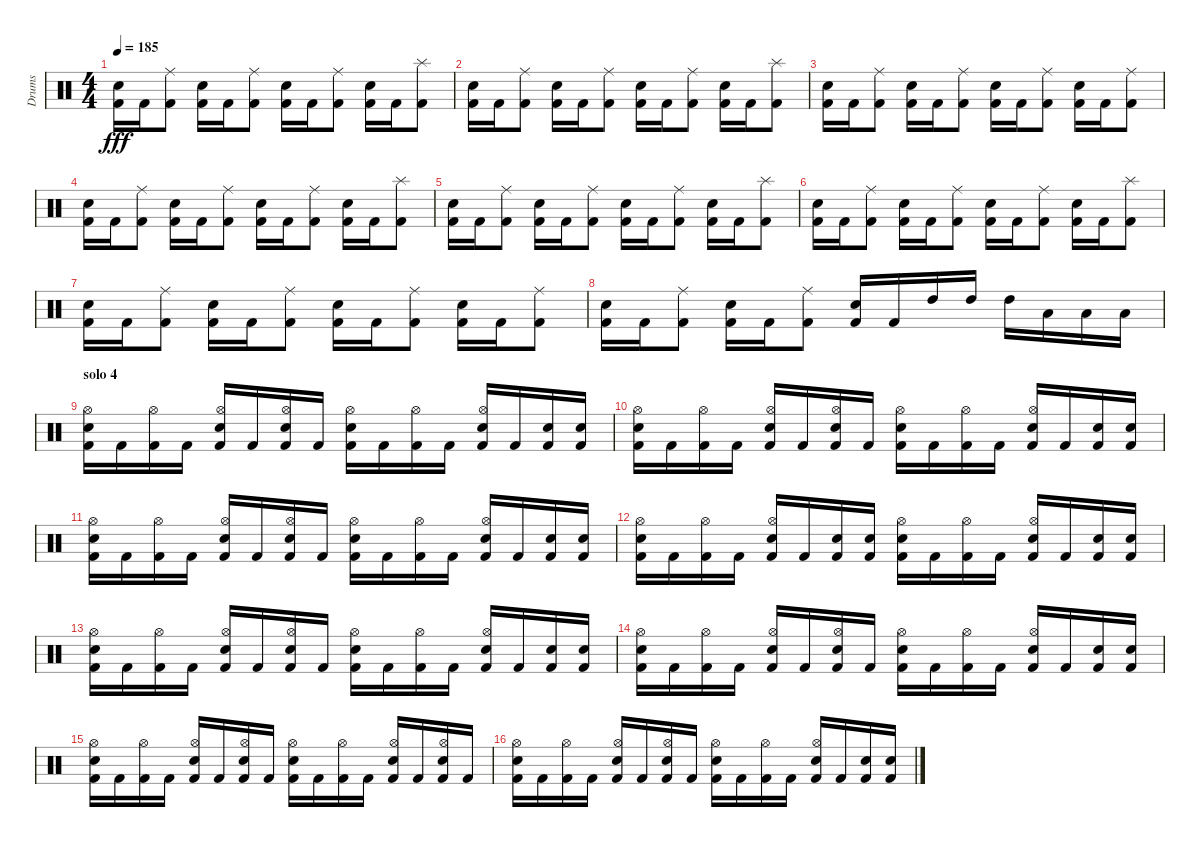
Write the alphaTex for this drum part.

\track ("Drums" "Drums") {instrument percussion}
\staff {score}
\articulation defaults
\ts (4 4)
\tempo 185
\clef neutral
\ks c
("Snare (hit) 2" "Kick (hit) 2").16{dy fff} "Kick (hit) 2".16 ("Ride (middle)" "Kick (hit) 2").8 ("Snare (hit) 2" "Kick (hit) 2").16 "Kick (hit) 2".16 ("Ride (middle)" "Kick (hit) 2").8 ("Snare (hit) 2" "Kick (hit) 2").16 "Kick (hit) 2".16 ("Ride (middle)" "Kick (hit) 2").8 ("Snare (hit) 2" "Kick (hit) 2").16 "Kick (hit) 2".16 ("Splash (hit)" "Kick (hit) 2").8 |
("Snare (hit) 2" "Kick (hit) 2").16 "Kick (hit) 2".16 ("Ride (middle)" "Kick (hit) 2").8 ("Snare (hit) 2" "Kick (hit) 2").16 "Kick (hit) 2".16 ("Ride (middle)" "Kick (hit) 2").8 ("Snare (hit) 2" "Kick (hit) 2").16 "Kick (hit) 2".16 ("Ride (middle)" "Kick (hit) 2").8 ("Snare (hit) 2" "Kick (hit) 2").16 "Kick (hit) 2".16 ("Splash (hit)" "Kick (hit) 2").8 |
("Snare (hit) 2" "Kick (hit) 2").16 "Kick (hit) 2".16 ("Ride (middle)" "Kick (hit) 2").8 ("Snare (hit) 2" "Kick (hit) 2").16 "Kick (hit) 2".16 ("Ride (middle)" "Kick (hit) 2").8 ("Snare (hit) 2" "Kick (hit) 2").16 "Kick (hit) 2".16 ("Ride (middle)" "Kick (hit) 2").8 ("Snare (hit) 2" "Kick (hit) 2").16 "Kick (hit) 2".16 ("Ride (middle)" "Kick (hit) 2").8 |
("Snare (hit) 2" "Kick (hit) 2").16 "Kick (hit) 2".16 ("Ride (middle)" "Kick (hit) 2").8 ("Snare (hit) 2" "Kick (hit) 2").16 "Kick (hit) 2".16 ("Ride (middle)" "Kick (hit) 2").8 ("Snare (hit) 2" "Kick (hit) 2").16 "Kick (hit) 2".16 ("Ride (middle)" "Kick (hit) 2").8 ("Snare (hit) 2" "Kick (hit) 2").16 "Kick (hit) 2".16 ("Splash (hit)" "Kick (hit) 2").8 |
("Snare (hit) 2" "Kick (hit) 2").16 "Kick (hit) 2".16 ("Ride (middle)" "Kick (hit) 2").8 ("Snare (hit) 2" "Kick (hit) 2").16 "Kick (hit) 2".16 ("Ride (middle)" "Kick (hit) 2").8 ("Snare (hit) 2" "Kick (hit) 2").16 "Kick (hit) 2".16 ("Ride (middle)" "Kick (hit) 2").8 ("Snare (hit) 2" "Kick (hit) 2").16 "Kick (hit) 2".16 ("Splash (hit)" "Kick (hit) 2").8 |
("Snare (hit) 2" "Kick (hit) 2").16 "Kick (hit) 2".16 ("Ride (middle)" "Kick (hit) 2").8 ("Snare (hit) 2" "Kick (hit) 2").16 "Kick (hit) 2".16 ("Ride (middle)" "Kick (hit) 2").8 ("Snare (hit) 2" "Kick (hit) 2").16 "Kick (hit) 2".16 ("Ride (middle)" "Kick (hit) 2").8 ("Snare (hit) 2" "Kick (hit) 2").16 "Kick (hit) 2".16 ("Splash (hit)" "Kick (hit) 2").8 |
("Snare (hit) 2" "Kick (hit) 2").16 "Kick (hit) 2".16 ("Ride (middle)" "Kick (hit) 2").8 ("Snare (hit) 2" "Kick (hit) 2").16 "Kick (hit) 2".16 ("Ride (middle)" "Kick (hit) 2").8 ("Snare (hit) 2" "Kick (hit) 2").16 "Kick (hit) 2".16 ("Ride (middle)" "Kick (hit) 2").8 ("Snare (hit) 2" "Kick (hit) 2").16 "Kick (hit) 2".16 ("Ride (middle)" "Kick (hit) 2").8 |
("Snare (hit) 2" "Kick (hit) 2").16 "Kick (hit) 2".16 ("Ride (middle)" "Kick (hit) 2").8 ("Snare (hit) 2" "Kick (hit) 2").16 "Kick (hit) 2".16 ("Ride (middle)" "Kick (hit) 2").8 ("Snare (hit) 2" "Kick (hit) 2").16 "Kick (hit) 2".16 "High Tom (hit)".16 "High Tom (hit)".16 "High Tom (hit)".16 "Low Tom (hit)".16 "Low Tom (hit)".16 "Low Tom (hit)".16 |
\section ("" "solo 4")
("Hi-Hat (open)" "Electric Snare (hit)" "Kick (hit) 2").16 "Kick (hit) 2".16 ("Hi-Hat (open)" "Kick (hit) 2").16 "Kick (hit) 2".16 ("Hi-Hat (open)" "Electric Snare (hit)" "Kick (hit) 2").16 "Kick (hit) 2".16 ("Hi-Hat (open)" "Electric Snare (hit)" "Kick (hit) 2").16 "Kick (hit) 2".16 ("Hi-Hat (open)" "Electric Snare (hit)" "Kick (hit) 2").16 "Kick (hit) 2".16 ("Hi-Hat (open)" "Kick (hit) 2").16 "Kick (hit) 2".16 ("Hi-Hat (open)" "Electric Snare (hit)" "Kick (hit) 2").16 "Kick (hit) 2".16 ("Electric Snare (hit)" "Kick (hit) 2").16 ("Electric Snare (hit)" "Kick (hit) 2").16 |
("Hi-Hat (open)" "Electric Snare (hit)" "Kick (hit) 2").16 "Kick (hit) 2".16 ("Hi-Hat (open)" "Kick (hit) 2").16 "Kick (hit) 2".16 ("Hi-Hat (open)" "Electric Snare (hit)" "Kick (hit) 2").16 "Kick (hit) 2".16 ("Hi-Hat (open)" "Electric Snare (hit)" "Kick (hit) 2").16 "Kick (hit) 2".16 ("Hi-Hat (open)" "Electric Snare (hit)" "Kick (hit) 2").16 "Kick (hit) 2".16 ("Hi-Hat (open)" "Kick (hit) 2").16 "Kick (hit) 2".16 ("Hi-Hat (open)" "Electric Snare (hit)" "Kick (hit) 2").16 "Kick (hit) 2".16 ("Electric Snare (hit)" "Kick (hit) 2").16 ("Electric Snare (hit)" "Kick (hit) 2").16 |
("Hi-Hat (open)" "Electric Snare (hit)" "Kick (hit) 2").16 "Kick (hit) 2".16 ("Hi-Hat (open)" "Kick (hit) 2").16 "Kick (hit) 2".16 ("Hi-Hat (open)" "Electric Snare (hit)" "Kick (hit) 2").16 "Kick (hit) 2".16 ("Hi-Hat (open)" "Electric Snare (hit)" "Kick (hit) 2").16 "Kick (hit) 2".16 ("Hi-Hat (open)" "Electric Snare (hit)" "Kick (hit) 2").16 "Kick (hit) 2".16 ("Hi-Hat (open)" "Kick (hit) 2").16 "Kick (hit) 2".16 ("Hi-Hat (open)" "Electric Snare (hit)" "Kick (hit) 2").16 "Kick (hit) 2".16 ("Electric Snare (hit)" "Kick (hit) 2").16 ("Electric Snare (hit)" "Kick (hit) 2").16 |
("Hi-Hat (open)" "Electric Snare (hit)" "Kick (hit) 2").16 "Kick (hit) 2".16 ("Hi-Hat (open)" "Kick (hit) 2").16 "Kick (hit) 2".16 ("Hi-Hat (open)" "Electric Snare (hit)" "Kick (hit) 2").16 "Kick (hit) 2".16 ("Electric Snare (hit)" "Kick (hit) 2").16 ("Electric Snare (hit)" "Kick (hit) 2").16 ("Hi-Hat (open)" "Electric Snare (hit)" "Kick (hit) 2").16 "Kick (hit) 2".16 ("Hi-Hat (open)" "Kick (hit) 2").16 "Kick (hit) 2".16 ("Hi-Hat (open)" "Electric Snare (hit)" "Kick (hit) 2").16 "Kick (hit) 2".16 ("Electric Snare (hit)" "Kick (hit) 2").16 ("Electric Snare (hit)" "Kick (hit) 2").16 |
("Hi-Hat (open)" "Electric Snare (hit)" "Kick (hit) 2").16 "Kick (hit) 2".16 ("Hi-Hat (open)" "Kick (hit) 2").16 "Kick (hit) 2".16 ("Hi-Hat (open)" "Electric Snare (hit)" "Kick (hit) 2").16 "Kick (hit) 2".16 ("Hi-Hat (open)" "Electric Snare (hit)" "Kick (hit) 2").16 "Kick (hit) 2".16 ("Hi-Hat (open)" "Electric Snare (hit)" "Kick (hit) 2").16 "Kick (hit) 2".16 ("Hi-Hat (open)" "Kick (hit) 2").16 "Kick (hit) 2".16 ("Hi-Hat (open)" "Electric Snare (hit)" "Kick (hit) 2").16 "Kick (hit) 2".16 ("Electric Snare (hit)" "Kick (hit) 2").16 ("Electric Snare (hit)" "Kick (hit) 2").16 |
("Hi-Hat (open)" "Electric Snare (hit)" "Kick (hit) 2").16 "Kick (hit) 2".16 ("Hi-Hat (open)" "Kick (hit) 2").16 "Kick (hit) 2".16 ("Hi-Hat (open)" "Electric Snare (hit)" "Kick (hit) 2").16 "Kick (hit) 2".16 ("Hi-Hat (open)" "Electric Snare (hit)" "Kick (hit) 2").16 "Kick (hit) 2".16 ("Hi-Hat (open)" "Electric Snare (hit)" "Kick (hit) 2").16 "Kick (hit) 2".16 ("Hi-Hat (open)" "Kick (hit) 2").16 "Kick (hit) 2".16 ("Hi-Hat (open)" "Electric Snare (hit)" "Kick (hit) 2").16 "Kick (hit) 2".16 ("Electric Snare (hit)" "Kick (hit) 2").16 ("Electric Snare (hit)" "Kick (hit) 2").16 |
("Hi-Hat (open)" "Electric Snare (hit)" "Kick (hit) 2").16 "Kick (hit) 2".16 ("Hi-Hat (open)" "Kick (hit) 2").16 "Kick (hit) 2".16 ("Hi-Hat (open)" "Electric Snare (hit)" "Kick (hit) 2").16 "Kick (hit) 2".16 ("Hi-Hat (open)" "Electric Snare (hit)" "Kick (hit) 2").16 "Kick (hit) 2".16 ("Hi-Hat (open)" "Electric Snare (hit)" "Kick (hit) 2").16 "Kick (hit) 2".16 ("Hi-Hat (open)" "Kick (hit) 2").16 "Kick (hit) 2".16 ("Hi-Hat (open)" "Electric Snare (hit)" "Kick (hit) 2").16 "Kick (hit) 2".16 ("Hi-Hat (open)" "Electric Snare (hit)" "Kick (hit) 2").16 "Kick (hit) 2".16 |
("Hi-Hat (open)" "Electric Snare (hit)" "Kick (hit) 2").16 "Kick (hit) 2".16 ("Hi-Hat (open)" "Kick (hit) 2").16 "Kick (hit) 2".16 ("Hi-Hat (open)" "Electric Snare (hit)" "Kick (hit) 2").16 "Kick (hit) 2".16 ("Hi-Hat (open)" "Electric Snare (hit)" "Kick (hit) 2").16 "Kick (hit) 2".16 ("Hi-Hat (open)" "Electric Snare (hit)" "Kick (hit) 2").16 "Kick (hit) 2".16 ("Hi-Hat (open)" "Kick (hit) 2").16 "Kick (hit) 2".16 ("Hi-Hat (open)" "Electric Snare (hit)" "Kick (hit) 2").16 "Kick (hit) 2".16 ("Electric Snare (hit)" "Kick (hit) 2").16 ("Electric Snare (hit)" "Kick (hit) 2").16
